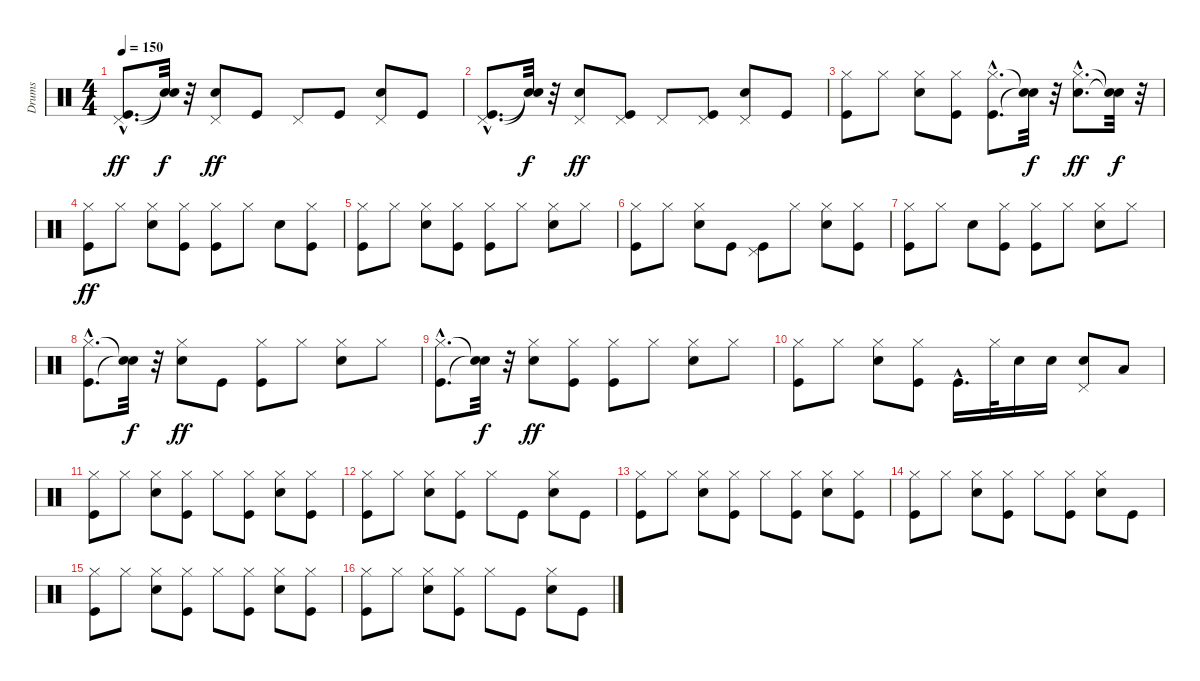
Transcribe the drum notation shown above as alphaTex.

\track ("Drums" "Drums") {instrument percussion}
\staff {score}
\articulation defaults
\ts (4 4)
\tempo 150
\clef neutral
\ks c
("Kick (hit)"{hac} "Pedal Hi-Hat (hit)"{hac}).8{d dy ff} ("Snare (hit)"{t} "Snare (hit)"{t}).32{dy f} r.32 ("Snare (hit) 2" "Pedal Hi-Hat (hit)").8{dy ff} "Kick (hit)".8 "Pedal Hi-Hat (hit)".8 "Kick (hit)".8 ("Snare (hit) 2" "Pedal Hi-Hat (hit)").8 "Kick (hit)".8 |
("Kick (hit)"{hac} "Pedal Hi-Hat (hit)"{hac}).8{d} ("Snare (hit)"{t} "Snare (hit)"{t}).32{dy f} r.32 ("Snare (hit) 2" "Pedal Hi-Hat (hit)").8{dy ff} ("Kick (hit)" "Pedal Hi-Hat (hit)").8 "Pedal Hi-Hat (hit)".8 ("Kick (hit)" "Pedal Hi-Hat (hit)").8 ("Snare (hit) 2" "Pedal Hi-Hat (hit)").8 "Kick (hit)".8 |
("Kick (hit)" "Hi-Hat (closed)").8 "Hi-Hat (closed)".8 ("Snare (hit) 2" "Hi-Hat (closed)").8 ("Kick (hit)" "Hi-Hat (closed)").8 ("Kick (hit)"{hac} "Hi-Hat (closed)"{hac}).8{d} ("Snare (hit)"{t} "Snare (hit)"{t}).32{dy f} r.32 ("Snare (hit) 2"{hac} "Hi-Hat (closed)"{hac}).8{d dy ff} ("Snare (hit)"{t} "Snare (hit)"{t}).32{dy f} r.32 |
("Kick (hit)" "Hi-Hat (closed)").8{dy ff} "Hi-Hat (closed)".8 ("Snare (hit) 2" "Hi-Hat (closed)").8 ("Kick (hit)" "Hi-Hat (closed)").8 ("Kick (hit)" "Hi-Hat (closed)").8 "Hi-Hat (closed)".8 "Snare (hit) 2".8 ("Kick (hit)" "Hi-Hat (closed)").8 |
("Kick (hit)" "Hi-Hat (closed)").8 "Hi-Hat (closed)".8 ("Snare (hit) 2" "Hi-Hat (closed)").8 ("Kick (hit)" "Hi-Hat (closed)").8 ("Kick (hit)" "Hi-Hat (closed)").8 "Hi-Hat (closed)".8 ("Snare (hit) 2" "Hi-Hat (closed)").8 "Hi-Hat (closed)".8 |
("Kick (hit)" "Hi-Hat (closed)").8 "Hi-Hat (closed)".8 ("Snare (hit) 2" "Hi-Hat (closed)").8 "Kick (hit)".8 ("Kick (hit)" "Pedal Hi-Hat (hit)").8 "Hi-Hat (closed)".8 ("Snare (hit) 2" "Hi-Hat (closed)").8 ("Kick (hit)" "Hi-Hat (closed)").8 |
("Kick (hit)" "Hi-Hat (closed)").8 "Hi-Hat (closed)".8 "Snare (hit) 2".8 ("Kick (hit)" "Hi-Hat (closed)").8 ("Kick (hit)" "Hi-Hat (closed)").8 "Hi-Hat (closed)".8 ("Snare (hit) 2" "Hi-Hat (closed)").8 "Hi-Hat (closed)".8 |
("Kick (hit)"{hac} "Hi-Hat (closed)"{hac}).8{d} ("Snare (hit)"{t} "Snare (hit)"{t}).32{dy f} r.32 ("Snare (hit) 2" "Hi-Hat (closed)").8{dy ff} "Kick (hit)".8 ("Kick (hit)" "Hi-Hat (closed)").8 "Hi-Hat (closed)".8 ("Snare (hit) 2" "Hi-Hat (closed)").8 "Hi-Hat (closed)".8 |
("Kick (hit)"{hac} "Hi-Hat (closed)"{hac}).8{d} ("Snare (hit)"{t} "Snare (hit)"{t}).32{dy f} r.32 ("Snare (hit) 2" "Hi-Hat (closed)").8{dy ff} ("Kick (hit)" "Hi-Hat (closed)").8 ("Kick (hit)" "Hi-Hat (closed)").8 "Hi-Hat (closed)".8 ("Snare (hit) 2" "Hi-Hat (closed)").8 "Hi-Hat (closed)".8 |
("Kick (hit)" "Hi-Hat (closed)").8 "Hi-Hat (closed)".8 ("Snare (hit) 2" "Hi-Hat (closed)").8 ("Kick (hit)" "Hi-Hat (closed)").8 "Kick (hit)"{hac}.16{d} "Hi-Hat (closed)".32 "Snare (hit) 2".16 "Snare (hit) 2".16 ("Snare (hit) 2" "Pedal Hi-Hat (hit)").8 "Low Floor Tom (hit)".8 |
("Kick (hit)" "Hi-Hat (closed)").8 "Hi-Hat (closed)".8 ("Snare (hit) 2" "Hi-Hat (closed)").8 ("Kick (hit)" "Hi-Hat (closed)").8 "Hi-Hat (closed)".8 ("Kick (hit)" "Hi-Hat (closed)").8 ("Snare (hit) 2" "Hi-Hat (closed)").8 ("Kick (hit)" "Hi-Hat (closed)").8 |
("Kick (hit)" "Hi-Hat (closed)").8 "Hi-Hat (closed)".8 ("Snare (hit) 2" "Hi-Hat (closed)").8 ("Kick (hit)" "Hi-Hat (closed)").8 "Hi-Hat (closed)".8 "Kick (hit)".8 ("Snare (hit) 2" "Hi-Hat (closed)").8 "Kick (hit)".8 |
("Kick (hit)" "Hi-Hat (closed)").8 "Hi-Hat (closed)".8 ("Snare (hit) 2" "Hi-Hat (closed)").8 ("Kick (hit)" "Hi-Hat (closed)").8 "Hi-Hat (closed)".8 ("Kick (hit)" "Hi-Hat (closed)").8 ("Snare (hit) 2" "Hi-Hat (closed)").8 ("Kick (hit)" "Hi-Hat (closed)").8 |
("Kick (hit)" "Hi-Hat (closed)").8 "Hi-Hat (closed)".8 ("Snare (hit) 2" "Hi-Hat (closed)").8 ("Kick (hit)" "Hi-Hat (closed)").8 "Hi-Hat (closed)".8 ("Kick (hit)" "Hi-Hat (closed)").8 ("Snare (hit) 2" "Hi-Hat (closed)").8 "Kick (hit)".8 |
("Kick (hit)" "Hi-Hat (closed)").8 "Hi-Hat (closed)".8 ("Snare (hit) 2" "Hi-Hat (closed)").8 ("Kick (hit)" "Hi-Hat (closed)").8 "Hi-Hat (closed)".8 ("Kick (hit)" "Hi-Hat (closed)").8 ("Snare (hit) 2" "Hi-Hat (closed)").8 ("Kick (hit)" "Hi-Hat (closed)").8 |
("Kick (hit)" "Hi-Hat (closed)").8 "Hi-Hat (closed)".8 ("Snare (hit) 2" "Hi-Hat (closed)").8 ("Kick (hit)" "Hi-Hat (closed)").8 "Hi-Hat (closed)".8 "Kick (hit)".8 ("Snare (hit) 2" "Hi-Hat (closed)").8 "Kick (hit)".8
